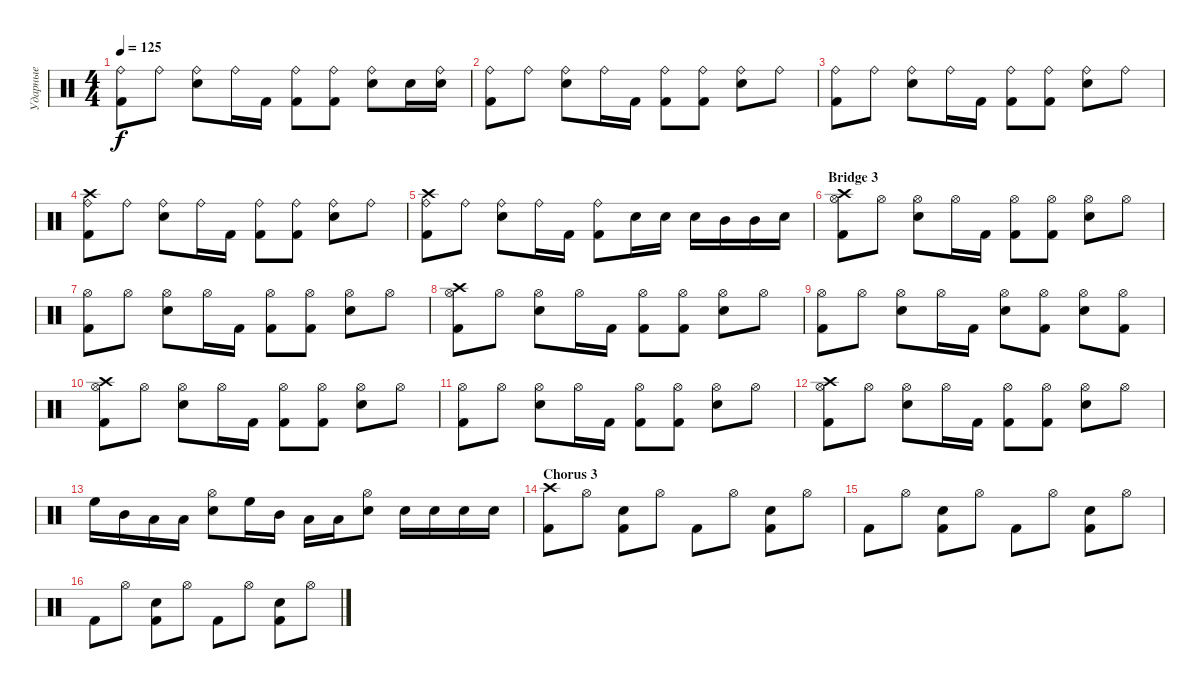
\track ("Ударные" "Ударные") {instrument percussion}
\staff {score}
\articulation defaults
\ts (4 4)
\tempo 125
\clef neutral
\ks c
("Ride (bell)" "Kick (hit) 2").8{dy f} "Ride (bell)".8 ("Ride (bell)" "Snare (hit) 2").8 "Ride (bell)".16 "Kick (hit) 2".16 ("Ride (bell)" "Kick (hit) 2").8 ("Ride (bell)" "Kick (hit) 2").8 ("Ride (bell)" "Snare (hit) 2").8 "Snare (hit) 2".16 ("Ride (bell)" "Snare (hit) 2").16 |
("Ride (bell)" "Kick (hit) 2").8 "Ride (bell)".8 ("Ride (bell)" "Snare (hit) 2").8 "Ride (bell)".16 "Kick (hit) 2".16 ("Ride (bell)" "Kick (hit) 2").8 ("Ride (bell)" "Kick (hit) 2").8 ("Ride (bell)" "Snare (hit) 2").8 "Ride (bell)".8 |
("Ride (bell)" "Kick (hit) 2").8 "Ride (bell)".8 ("Ride (bell)" "Snare (hit) 2").8 "Ride (bell)".16 "Kick (hit) 2".16 ("Ride (bell)" "Kick (hit) 2").8 ("Ride (bell)" "Kick (hit) 2").8 ("Ride (bell)" "Snare (hit) 2").8 "Ride (bell)".8 |
("Ride (bell)" "Crash high (hit)" "Kick (hit) 2").8 "Ride (bell)".8 ("Ride (bell)" "Snare (hit) 2").8 "Ride (bell)".16 "Kick (hit) 2".16 ("Ride (bell)" "Kick (hit) 2").8 ("Ride (bell)" "Kick (hit) 2").8 ("Ride (bell)" "Snare (hit) 2").8 "Ride (bell)".8 |
("Ride (bell)" "Crash high (hit)" "Kick (hit) 2").8 "Ride (bell)".8 ("Ride (bell)" "Snare (hit) 2").8 "Ride (bell)".16 "Kick (hit) 2".16 ("Ride (bell)" "Kick (hit) 2").8 "Snare (hit) 2".16 "Snare (hit) 2".16 "Snare (hit) 2".16 "Mid Tom (hit)".16 "Mid Tom (hit)".16 "Snare (hit) 2".16 |
\section ("" "Bridge 3")
("Hi-Hat (open)" "Crash high (hit)" "Kick (hit) 2").8 "Hi-Hat (open)".8 ("Hi-Hat (open)" "Snare (hit) 2").8 "Hi-Hat (open)".16 "Kick (hit) 2".16 ("Hi-Hat (open)" "Kick (hit) 2").8 ("Hi-Hat (open)" "Kick (hit) 2").8 ("Hi-Hat (open)" "Snare (hit) 2").8 "Hi-Hat (open)".8 |
("Hi-Hat (open)" "Kick (hit) 2").8 "Hi-Hat (open)".8 ("Hi-Hat (open)" "Snare (hit) 2").8 "Hi-Hat (open)".16 "Kick (hit) 2".16 ("Hi-Hat (open)" "Kick (hit) 2").8 ("Hi-Hat (open)" "Kick (hit) 2").8 ("Hi-Hat (open)" "Snare (hit) 2").8 "Hi-Hat (open)".8 |
("Hi-Hat (open)" "Crash high (hit)" "Kick (hit) 2").8 "Hi-Hat (open)".8 ("Hi-Hat (open)" "Snare (hit) 2").8 "Hi-Hat (open)".16 "Kick (hit) 2".16 ("Hi-Hat (open)" "Kick (hit) 2").8 ("Hi-Hat (open)" "Kick (hit) 2").8 ("Hi-Hat (open)" "Snare (hit) 2").8 "Hi-Hat (open)".8 |
("Hi-Hat (open)" "Kick (hit) 2").8 "Hi-Hat (open)".8 ("Hi-Hat (open)" "Snare (hit) 2").8 "Hi-Hat (open)".16 "Kick (hit) 2".16 ("Hi-Hat (open)" "Snare (hit) 2").8 ("Hi-Hat (open)" "Kick (hit) 2").8 ("Hi-Hat (open)" "Snare (hit) 2").8 ("Hi-Hat (open)" "Kick (hit) 2").8 |
("Hi-Hat (open)" "Crash high (hit)" "Kick (hit) 2").8 "Hi-Hat (open)".8 ("Hi-Hat (open)" "Snare (hit) 2").8 "Hi-Hat (open)".16 "Kick (hit) 2".16 ("Hi-Hat (open)" "Kick (hit) 2").8 ("Hi-Hat (open)" "Kick (hit) 2").8 ("Hi-Hat (open)" "Snare (hit) 2").8 "Hi-Hat (open)".8 |
("Hi-Hat (open)" "Kick (hit) 2").8 "Hi-Hat (open)".8 ("Hi-Hat (open)" "Snare (hit) 2").8 "Hi-Hat (open)".16 "Kick (hit) 2".16 ("Hi-Hat (open)" "Kick (hit) 2").8 ("Hi-Hat (open)" "Kick (hit) 2").8 ("Hi-Hat (open)" "Snare (hit) 2").8 "Hi-Hat (open)".8 |
("Hi-Hat (open)" "Crash high (hit)" "Kick (hit) 2").8 "Hi-Hat (open)".8 ("Hi-Hat (open)" "Snare (hit) 2").8 "Hi-Hat (open)".16 "Kick (hit) 2".16 ("Hi-Hat (open)" "Kick (hit) 2").8 ("Hi-Hat (open)" "Kick (hit) 2").8 ("Hi-Hat (open)" "Snare (hit) 2").8 "Hi-Hat (open)".8 |
"High Floor Tom (hit)".16 "Mid Tom (hit)".16 "Low Tom (hit)".16 "Low Floor Tom (hit)".16 ("Hi-Hat (open)" "Snare (hit) 2").8 "High Floor Tom (hit)".16 "Mid Tom (hit)".16 "Low Tom (hit)".16 "Low Floor Tom (hit)".16 ("Hi-Hat (open)" "Snare (hit) 2").8 "Snare (hit) 2".16 "Snare (hit) 2".16 "Snare (hit) 2".16 "Snare (hit) 2".16 |
\section ("" "Chorus 3")
("Crash high (hit)" "Kick (hit) 2").8 "Hi-Hat (open)".8 ("Snare (hit) 2" "Kick (hit) 2").8 "Hi-Hat (open)".8 "Kick (hit) 2".8 "Hi-Hat (open)".8 ("Snare (hit) 2" "Kick (hit) 2").8 "Hi-Hat (open)".8 |
"Kick (hit) 2".8 "Hi-Hat (open)".8 ("Snare (hit) 2" "Kick (hit) 2").8 "Hi-Hat (open)".8 "Kick (hit) 2".8 "Hi-Hat (open)".8 ("Snare (hit) 2" "Kick (hit) 2").8 "Hi-Hat (open)".8 |
"Kick (hit) 2".8 "Hi-Hat (open)".8 ("Snare (hit) 2" "Kick (hit) 2").8 "Hi-Hat (open)".8 "Kick (hit) 2".8 "Hi-Hat (open)".8 ("Snare (hit) 2" "Kick (hit) 2").8 "Hi-Hat (open)".8
